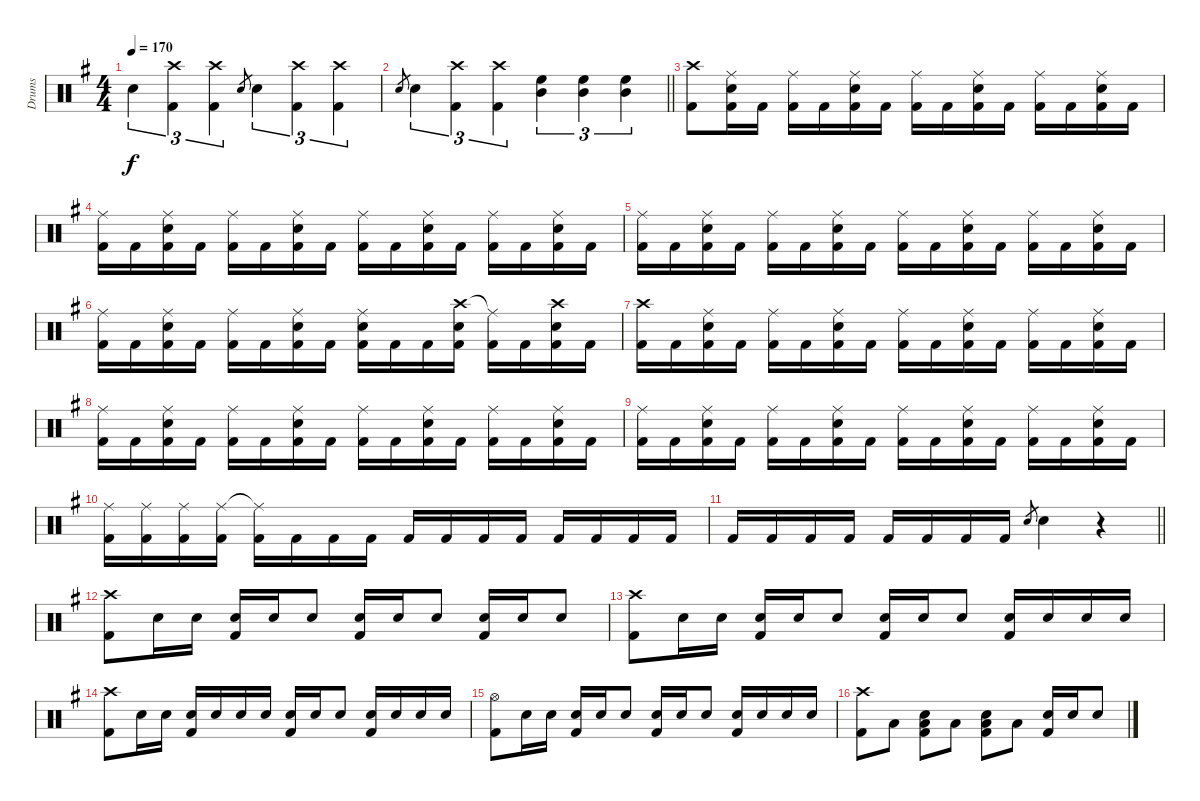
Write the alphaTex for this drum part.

\track ("Drums" "Drums") {instrument percussion}
\staff {score}
\articulation defaults
\ts (4 4)
\tempo 170
\clef neutral
\ks g "Snare (hit) 2".4{tu (3 2) dy f}
("Crash high (hit)" "Kick (hit) 2").4{tu (3 2)} ("Crash high (hit)" "Kick (hit) 2").4{tu (3 2)} "Snare (hit) 2".8{gr} "Snare (hit) 2".4{tu (3 2)} ("Crash high (hit)" "Kick (hit) 2").4{tu (3 2)} ("Crash high (hit)" "Kick (hit) 2").4{tu (3 2)} |
\barLineRight lightlight "Snare (hit) 2".8{gr} "Snare (hit) 2".4{tu (3 2)}
("Crash high (hit)" "Kick (hit) 2").4{tu (3 2)} ("Crash high (hit)" "Kick (hit) 2").4{tu (3 2)} ("High Floor Tom (hit)" "Mid Tom (hit)").4{tu (3 2)} ("High Floor Tom (hit)" "Mid Tom (hit)").4{tu (3 2)} ("High Floor Tom (hit)" "Mid Tom (hit)").4{tu (3 2)} |
("Crash high (hit)" "Kick (hit) 2").8 ("Ride (middle)" "Snare (hit) 2" "Kick (hit) 2").16 "Kick (hit) 2".16 ("Ride (middle)" "Kick (hit) 2").16 "Kick (hit) 2".16 ("Ride (middle)" "Snare (hit) 2" "Kick (hit) 2").16 "Kick (hit) 2".16 ("Ride (middle)" "Kick (hit) 2").16 "Kick (hit) 2".16 ("Ride (middle)" "Snare (hit) 2" "Kick (hit) 2").16 "Kick (hit) 2".16 ("Ride (middle)" "Kick (hit) 2").16 "Kick (hit) 2".16 ("Ride (middle)" "Snare (hit) 2" "Kick (hit) 2").16 "Kick (hit) 2".16 |
("Ride (middle)" "Kick (hit) 2").16 "Kick (hit) 2".16 ("Ride (middle)" "Snare (hit) 2" "Kick (hit) 2").16 "Kick (hit) 2".16 ("Ride (middle)" "Kick (hit) 2").16 "Kick (hit) 2".16 ("Ride (middle)" "Snare (hit) 2" "Kick (hit) 2").16 "Kick (hit) 2".16 ("Ride (middle)" "Kick (hit) 2").16 "Kick (hit) 2".16 ("Ride (middle)" "Snare (hit) 2" "Kick (hit) 2").16 "Kick (hit) 2".16 ("Ride (middle)" "Kick (hit) 2").16 "Kick (hit) 2".16 ("Ride (middle)" "Snare (hit) 2" "Kick (hit) 2").16 "Kick (hit) 2".16 |
("Ride (middle)" "Kick (hit) 2").16 "Kick (hit) 2".16 ("Ride (middle)" "Snare (hit) 2" "Kick (hit) 2").16 "Kick (hit) 2".16 ("Ride (middle)" "Kick (hit) 2").16 "Kick (hit) 2".16 ("Ride (middle)" "Snare (hit) 2" "Kick (hit) 2").16 "Kick (hit) 2".16 ("Ride (middle)" "Kick (hit) 2").16 "Kick (hit) 2".16 ("Ride (middle)" "Snare (hit) 2" "Kick (hit) 2").16 "Kick (hit) 2".16 ("Ride (middle)" "Kick (hit) 2").16 "Kick (hit) 2".16 ("Ride (middle)" "Snare (hit) 2" "Kick (hit) 2").16 "Kick (hit) 2".16 |
("Ride (middle)" "Kick (hit) 2").16 "Kick (hit) 2".16 ("Ride (middle)" "Snare (hit) 2" "Kick (hit) 2").16 "Kick (hit) 2".16 ("Ride (middle)" "Kick (hit) 2").16 "Kick (hit) 2".16 ("Ride (middle)" "Snare (hit) 2" "Kick (hit) 2").16 "Kick (hit) 2".16 ("Ride (middle)" "Snare (hit) 2" "Kick (hit) 2").16 "Kick (hit) 2".16 "Kick (hit) 2".16 ("Crash high (hit)" "Snare (hit) 2" "Kick (hit) 2").16 ("Ride (middle)"{t} "Kick (hit) 2").16 "Kick (hit) 2".16 ("Crash high (hit)" "Snare (hit) 2" "Kick (hit) 2").16 "Kick (hit) 2".16 |
("Crash high (hit)" "Kick (hit) 2").16 "Kick (hit) 2".16 ("Ride (middle)" "Snare (hit) 2" "Kick (hit) 2").16 "Kick (hit) 2".16 ("Ride (middle)" "Kick (hit) 2").16 "Kick (hit) 2".16 ("Ride (middle)" "Snare (hit) 2" "Kick (hit) 2").16 "Kick (hit) 2".16 ("Ride (middle)" "Kick (hit) 2").16 "Kick (hit) 2".16 ("Ride (middle)" "Snare (hit) 2" "Kick (hit) 2").16 "Kick (hit) 2".16 ("Ride (middle)" "Kick (hit) 2").16 "Kick (hit) 2".16 ("Ride (middle)" "Snare (hit) 2" "Kick (hit) 2").16 "Kick (hit) 2".16 |
("Ride (middle)" "Kick (hit) 2").16 "Kick (hit) 2".16 ("Ride (middle)" "Snare (hit) 2" "Kick (hit) 2").16 "Kick (hit) 2".16 ("Ride (middle)" "Kick (hit) 2").16 "Kick (hit) 2".16 ("Ride (middle)" "Snare (hit) 2" "Kick (hit) 2").16 "Kick (hit) 2".16 ("Ride (middle)" "Kick (hit) 2").16 "Kick (hit) 2".16 ("Ride (middle)" "Snare (hit) 2" "Kick (hit) 2").16 "Kick (hit) 2".16 ("Ride (middle)" "Kick (hit) 2").16 "Kick (hit) 2".16 ("Ride (middle)" "Snare (hit) 2" "Kick (hit) 2").16 "Kick (hit) 2".16 |
("Ride (middle)" "Kick (hit) 2").16 "Kick (hit) 2".16 ("Ride (middle)" "Snare (hit) 2" "Kick (hit) 2").16 "Kick (hit) 2".16 ("Ride (middle)" "Kick (hit) 2").16 "Kick (hit) 2".16 ("Ride (middle)" "Snare (hit) 2" "Kick (hit) 2").16 "Kick (hit) 2".16 ("Ride (middle)" "Kick (hit) 2").16 "Kick (hit) 2".16 ("Ride (middle)" "Snare (hit) 2" "Kick (hit) 2").16 "Kick (hit) 2".16 ("Ride (middle)" "Kick (hit) 2").16 "Kick (hit) 2".16 ("Ride (middle)" "Snare (hit) 2" "Kick (hit) 2").16 "Kick (hit) 2".16 |
("Ride (middle)" "Kick (hit) 2").16 ("Ride (middle)" "Kick (hit) 2").16 ("Ride (middle)" "Kick (hit) 2").16 ("Ride (middle)" "Kick (hit) 2").16 ("Ride (middle)"{t} "Kick (hit) 2").16 "Kick (hit) 2".16 "Kick (hit) 2".16 "Kick (hit) 2".16 "Kick (hit) 2".16 "Kick (hit) 2".16 "Kick (hit) 2".16 "Kick (hit) 2".16 "Kick (hit) 2".16 "Kick (hit) 2".16 "Kick (hit) 2".16 "Kick (hit) 2".16 |
\barLineRight lightlight "Kick (hit) 2".16 "Kick (hit) 2".16 "Kick (hit) 2".16 "Kick (hit) 2".16 "Kick (hit) 2".16 "Kick (hit) 2".16 "Kick (hit) 2".16 "Kick (hit) 2".16 "Snare (hit) 2".8{gr} "Snare (hit) 2".4
r.4 |
("Crash high (hit)" "Kick (hit) 2").8 "Snare (hit) 2".16 "Snare (hit) 2".16 ("Snare (hit) 2" "Kick (hit) 2").16 "Snare (hit) 2".16 "Snare (hit) 2".8 ("Snare (hit) 2" "Kick (hit) 2").16 "Snare (hit) 2".16 "Snare (hit) 2".8 ("Snare (hit) 2" "Kick (hit) 2").16 "Snare (hit) 2".16 "Snare (hit) 2".8 |
("Crash high (hit)" "Kick (hit) 2").8 "Snare (hit) 2".16 "Snare (hit) 2".16 ("Snare (hit) 2" "Kick (hit) 2").16 "Snare (hit) 2".16 "Snare (hit) 2".8 ("Snare (hit) 2" "Kick (hit) 2").16 "Snare (hit) 2".16 "Snare (hit) 2".8 ("Snare (hit) 2" "Kick (hit) 2").16 "Snare (hit) 2".16 "Snare (hit) 2".16 "Snare (hit) 2".16 |
("Crash high (hit)" "Kick (hit) 2").8 "Snare (hit) 2".16 "Snare (hit) 2".16 ("Snare (hit) 2" "Kick (hit) 2").16 "Snare (hit) 2".16 "Snare (hit) 2".16 "Snare (hit) 2".16 ("Snare (hit) 2" "Kick (hit) 2").16 "Snare (hit) 2".16 "Snare (hit) 2".8 ("Snare (hit) 2" "Kick (hit) 2").16 "Snare (hit) 2".16 "Snare (hit) 2".16 "Snare (hit) 2".16 |
("Hi-Hat (open)" "Kick (hit) 2").8 "Snare (hit) 2".16 "Snare (hit) 2".16 ("Snare (hit) 2" "Kick (hit) 2").16 "Snare (hit) 2".16 "Snare (hit) 2".8 ("Snare (hit) 2" "Kick (hit) 2").16 "Snare (hit) 2".16 "Snare (hit) 2".8 ("Snare (hit) 2" "Kick (hit) 2").16 "Snare (hit) 2".16 "Snare (hit) 2".16 "Snare (hit) 2".16 |
("Crash high (hit)" "Kick (hit) 2").8 "Low Floor Tom (hit)".8 ("Snare (hit) 2" "Low Floor Tom (hit)" "Kick (hit) 2").8 "Low Floor Tom (hit)".8 ("Snare (hit) 2" "Low Floor Tom (hit)" "Kick (hit) 2").8 "Low Floor Tom (hit)".8 ("Snare (hit) 2" "Kick (hit) 2").16 "Snare (hit) 2".16 "Snare (hit) 2".8
